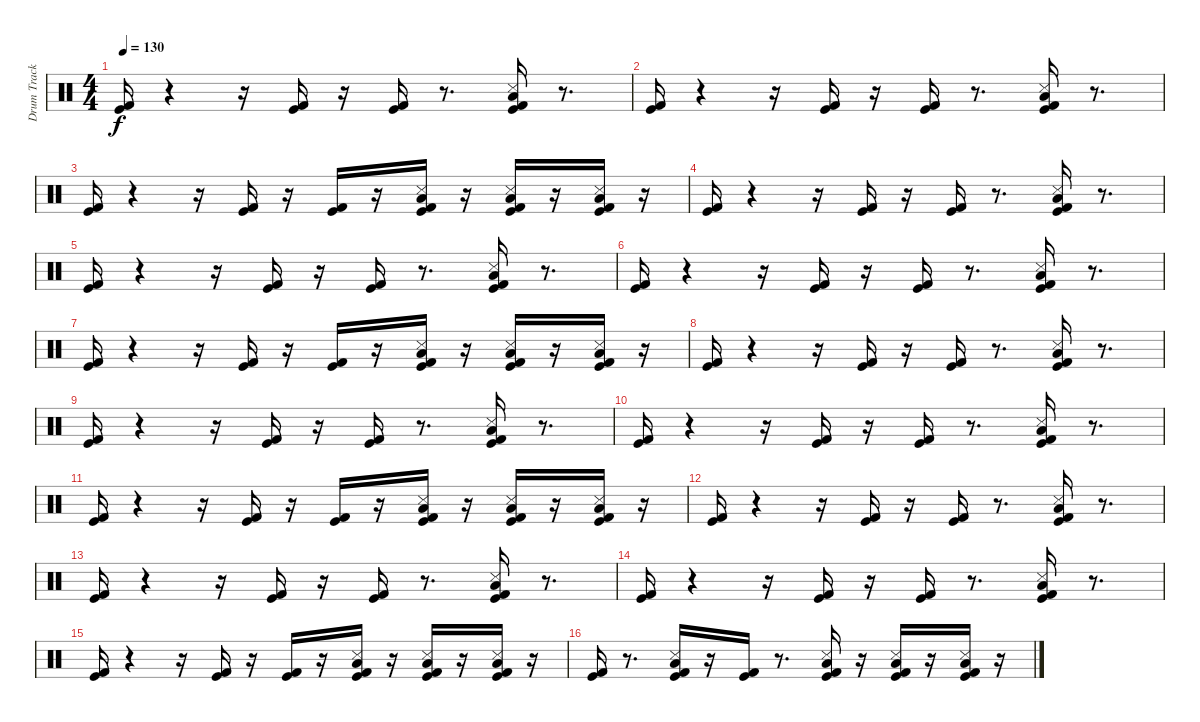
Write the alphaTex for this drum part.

\track ("Drum Track" "Drum Track") {instrument percussion}
\staff {score}
\articulation defaults
\ts (4 4)
\tempo 130
\clef neutral
\ks c
("Kick (hit)" "Kick (hit) 2").16{dy f} r.4 r.16 ("Kick (hit) 2" "Kick (hit)").16 r.16 ("Kick (hit) 2" "Kick (hit)").16 r.8{d} ("Snare (side stick) 3" "Kick (hit) 2" "Kick (hit)" "Low Floor Tom (hit)").16 r.8{d} |
("Kick (hit) 2" "Kick (hit)").16 r.4 r.16 ("Kick (hit) 2" "Kick (hit)").16 r.16 ("Kick (hit) 2" "Kick (hit)").16 r.8{d} ("Snare (side stick) 3" "Kick (hit) 2" "Kick (hit)" "Low Floor Tom (hit)").16 r.8{d} |
("Kick (hit)" "Kick (hit) 2").16 r.4 r.16 ("Kick (hit) 2" "Kick (hit)").16 r.16 ("Kick (hit) 2" "Kick (hit)").16 r.16 ("Snare (side stick) 3" "Kick (hit) 2" "Kick (hit)" "Low Floor Tom (hit)").16 r.16 ("Snare (side stick) 3" "Kick (hit) 2" "Kick (hit)" "Low Floor Tom (hit)").16 r.16 ("Snare (side stick) 3" "Kick (hit) 2" "Kick (hit)" "Low Floor Tom (hit)").16 r.16 |
("Kick (hit) 2" "Kick (hit)").16 r.4 r.16 ("Kick (hit) 2" "Kick (hit)").16 r.16 ("Kick (hit) 2" "Kick (hit)").16 r.8{d} ("Snare (side stick) 3" "Kick (hit) 2" "Kick (hit)" "Low Floor Tom (hit)").16 r.8{d} |
("Kick (hit)" "Kick (hit) 2").16 r.4 r.16 ("Kick (hit) 2" "Kick (hit)").16 r.16 ("Kick (hit) 2" "Kick (hit)").16 r.8{d} ("Snare (side stick) 3" "Kick (hit) 2" "Kick (hit)" "Low Floor Tom (hit)").16 r.8{d} |
("Kick (hit) 2" "Kick (hit)").16 r.4 r.16 ("Kick (hit) 2" "Kick (hit)").16 r.16 ("Kick (hit) 2" "Kick (hit)").16 r.8{d} ("Snare (side stick) 3" "Kick (hit) 2" "Kick (hit)" "Low Floor Tom (hit)").16 r.8{d} |
("Kick (hit)" "Kick (hit) 2").16 r.4 r.16 ("Kick (hit) 2" "Kick (hit)").16 r.16 ("Kick (hit) 2" "Kick (hit)").16 r.16 ("Snare (side stick) 3" "Kick (hit) 2" "Kick (hit)" "Low Floor Tom (hit)").16 r.16 ("Snare (side stick) 3" "Kick (hit) 2" "Kick (hit)" "Low Floor Tom (hit)").16 r.16 ("Snare (side stick) 3" "Kick (hit) 2" "Kick (hit)" "Low Floor Tom (hit)").16 r.16 |
("Kick (hit) 2" "Kick (hit)").16 r.4 r.16 ("Kick (hit) 2" "Kick (hit)").16 r.16 ("Kick (hit) 2" "Kick (hit)").16 r.8{d} ("Snare (side stick) 3" "Kick (hit) 2" "Kick (hit)" "Low Floor Tom (hit)").16 r.8{d} |
("Kick (hit)" "Kick (hit) 2").16 r.4 r.16 ("Kick (hit) 2" "Kick (hit)").16 r.16 ("Kick (hit) 2" "Kick (hit)").16 r.8{d} ("Snare (side stick) 3" "Kick (hit) 2" "Kick (hit)" "Low Floor Tom (hit)").16 r.8{d} |
("Kick (hit) 2" "Kick (hit)").16 r.4 r.16 ("Kick (hit) 2" "Kick (hit)").16 r.16 ("Kick (hit) 2" "Kick (hit)").16 r.8{d} ("Snare (side stick) 3" "Kick (hit) 2" "Kick (hit)" "Low Floor Tom (hit)").16 r.8{d} |
("Kick (hit)" "Kick (hit) 2").16 r.4 r.16 ("Kick (hit) 2" "Kick (hit)").16 r.16 ("Kick (hit) 2" "Kick (hit)").16 r.16 ("Snare (side stick) 3" "Kick (hit) 2" "Kick (hit)" "Low Floor Tom (hit)").16 r.16 ("Snare (side stick) 3" "Kick (hit) 2" "Kick (hit)" "Low Floor Tom (hit)").16 r.16 ("Snare (side stick) 3" "Kick (hit) 2" "Kick (hit)" "Low Floor Tom (hit)").16 r.16 |
("Kick (hit) 2" "Kick (hit)").16 r.4 r.16 ("Kick (hit) 2" "Kick (hit)").16 r.16 ("Kick (hit) 2" "Kick (hit)").16 r.8{d} ("Snare (side stick) 3" "Kick (hit) 2" "Kick (hit)" "Low Floor Tom (hit)").16 r.8{d} |
("Kick (hit)" "Kick (hit) 2").16 r.4 r.16 ("Kick (hit) 2" "Kick (hit)").16 r.16 ("Kick (hit) 2" "Kick (hit)").16 r.8{d} ("Snare (side stick) 3" "Kick (hit) 2" "Kick (hit)" "Low Floor Tom (hit)").16 r.8{d} |
("Kick (hit) 2" "Kick (hit)").16 r.4 r.16 ("Kick (hit) 2" "Kick (hit)").16 r.16 ("Kick (hit) 2" "Kick (hit)").16 r.8{d} ("Snare (side stick) 3" "Kick (hit) 2" "Kick (hit)" "Low Floor Tom (hit)").16 r.8{d} |
("Kick (hit)" "Kick (hit) 2").16 r.4 r.16 ("Kick (hit) 2" "Kick (hit)").16 r.16 ("Kick (hit) 2" "Kick (hit)").16 r.16 ("Snare (side stick) 3" "Kick (hit) 2" "Kick (hit)" "Low Floor Tom (hit)").16 r.16 ("Snare (side stick) 3" "Kick (hit) 2" "Kick (hit)" "Low Floor Tom (hit)").16 r.16 ("Snare (side stick) 3" "Kick (hit) 2" "Kick (hit)" "Low Floor Tom (hit)").16 r.16 |
("Kick (hit) 2" "Kick (hit)").16 r.8{d} ("Kick (hit) 2" "Kick (hit)" "Snare (side stick) 3" "Low Floor Tom (hit)").16 r.16 ("Kick (hit) 2" "Kick (hit)").16 r.8{d} ("Kick (hit) 2" "Kick (hit)" "Snare (side stick) 3" "Low Floor Tom (hit)").16 r.16 ("Kick (hit) 2" "Kick (hit)" "Snare (side stick) 3" "Low Floor Tom (hit)").16 r.16 ("Kick (hit) 2" "Kick (hit)" "Snare (side stick) 3" "Low Floor Tom (hit)").16 r.16
